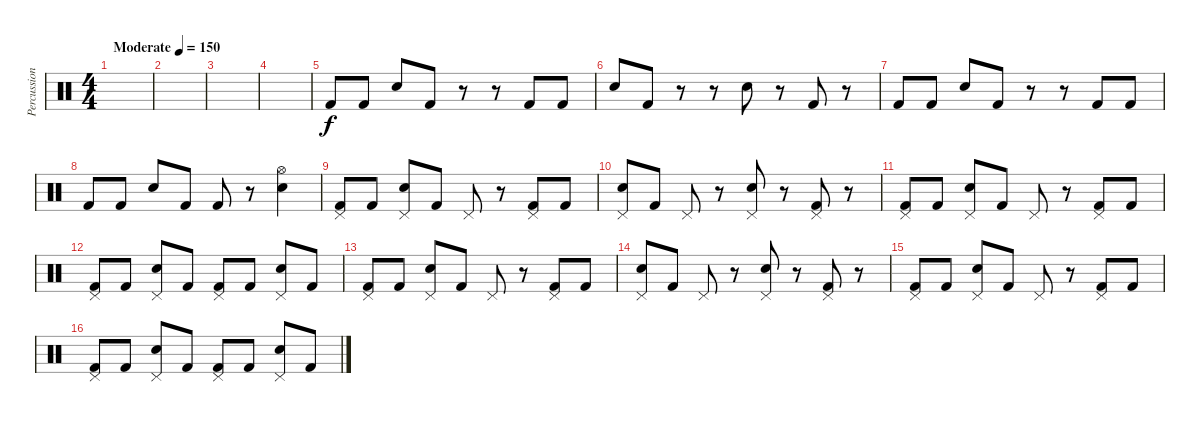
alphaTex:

\track ("Percussion" "Percussion") {instrument percussion}
\staff {score}
\articulation defaults
\ts (4 4)
\tempo (150 "Moderate")
\clef neutral
\ks c
|
|
|
|
"Kick (hit) 2".8 "Kick (hit) 2".8 "Electric Snare (hit)".8 "Kick (hit) 2".8 r.8 r.8 "Kick (hit) 2".8 "Kick (hit) 2".8 |
"Electric Snare (hit)".8 "Kick (hit) 2".8 r.8 r.8 "Electric Snare (hit)".8 r.8 "Kick (hit) 2".8 r.8 |
"Kick (hit) 2".8 "Kick (hit) 2".8 "Electric Snare (hit)".8 "Kick (hit) 2".8 r.8 r.8 "Kick (hit) 2".8 "Kick (hit) 2".8 |
"Kick (hit) 2".8 "Kick (hit) 2".8 "Electric Snare (hit)".8 "Kick (hit) 2".8 "Kick (hit) 2".8 r.8 ("Hi-Hat (open)" "Electric Snare (hit)").4 |
("Pedal Hi-Hat (hit)" "Kick (hit) 2").8 "Kick (hit) 2".8 ("Pedal Hi-Hat (hit)" "Electric Snare (hit)").8 "Kick (hit) 2".8 "Pedal Hi-Hat (hit)".8 r.8 ("Pedal Hi-Hat (hit)" "Kick (hit) 2").8 "Kick (hit) 2".8 |
("Pedal Hi-Hat (hit)" "Electric Snare (hit)").8 "Kick (hit) 2".8 "Pedal Hi-Hat (hit)".8 r.8 ("Pedal Hi-Hat (hit)" "Electric Snare (hit)").8 r.8 ("Pedal Hi-Hat (hit)" "Kick (hit) 2").8 r.8 |
("Pedal Hi-Hat (hit)" "Kick (hit) 2").8 "Kick (hit) 2".8 ("Pedal Hi-Hat (hit)" "Electric Snare (hit)").8 "Kick (hit) 2".8 "Pedal Hi-Hat (hit)".8 r.8 ("Pedal Hi-Hat (hit)" "Kick (hit) 2").8 "Kick (hit) 2".8 |
("Pedal Hi-Hat (hit)" "Kick (hit) 2").8 "Kick (hit) 2".8 ("Pedal Hi-Hat (hit)" "Electric Snare (hit)").8 "Kick (hit) 2".8 ("Pedal Hi-Hat (hit)" "Kick (hit) 2").8 "Kick (hit) 2".8 ("Pedal Hi-Hat (hit)" "Electric Snare (hit)").8 "Kick (hit) 2".8 |
("Pedal Hi-Hat (hit)" "Kick (hit) 2").8 "Kick (hit) 2".8 ("Pedal Hi-Hat (hit)" "Electric Snare (hit)").8 "Kick (hit) 2".8 "Pedal Hi-Hat (hit)".8 r.8 ("Pedal Hi-Hat (hit)" "Kick (hit) 2").8 "Kick (hit) 2".8 |
("Pedal Hi-Hat (hit)" "Electric Snare (hit)").8 "Kick (hit) 2".8 "Pedal Hi-Hat (hit)".8 r.8 ("Pedal Hi-Hat (hit)" "Electric Snare (hit)").8 r.8 ("Pedal Hi-Hat (hit)" "Kick (hit) 2").8 r.8 |
("Pedal Hi-Hat (hit)" "Kick (hit) 2").8 "Kick (hit) 2".8 ("Pedal Hi-Hat (hit)" "Electric Snare (hit)").8 "Kick (hit) 2".8 "Pedal Hi-Hat (hit)".8 r.8 ("Pedal Hi-Hat (hit)" "Kick (hit) 2").8 "Kick (hit) 2".8 |
("Pedal Hi-Hat (hit)" "Kick (hit) 2").8 "Kick (hit) 2".8 ("Pedal Hi-Hat (hit)" "Electric Snare (hit)").8 "Kick (hit) 2".8 ("Pedal Hi-Hat (hit)" "Kick (hit) 2").8 "Kick (hit) 2".8 ("Pedal Hi-Hat (hit)" "Electric Snare (hit)").8 "Kick (hit) 2".8
